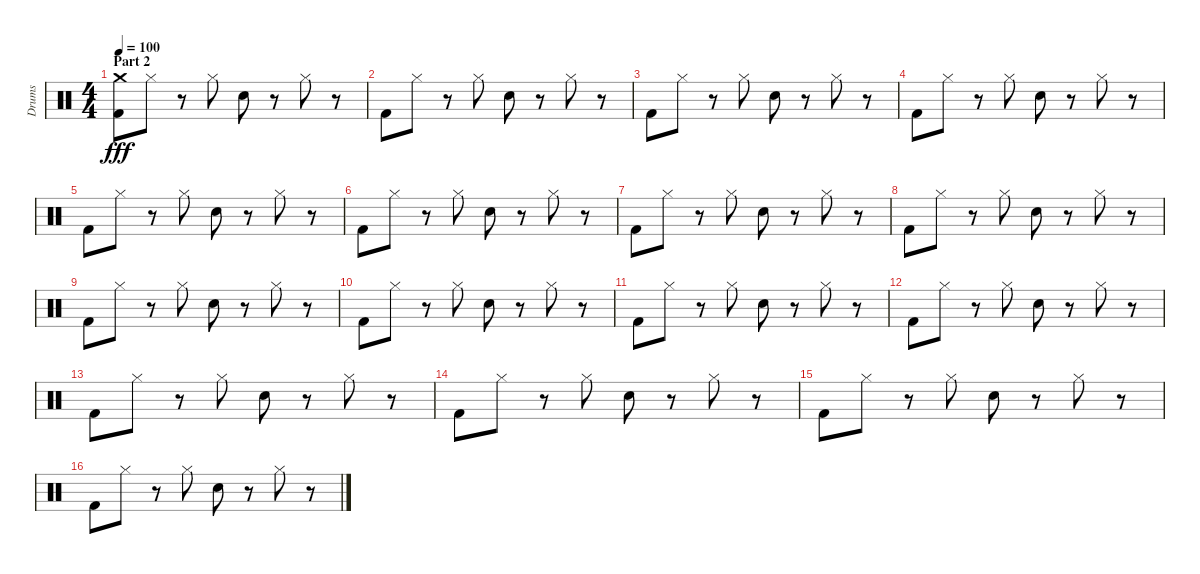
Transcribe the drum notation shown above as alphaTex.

\track ("Drums" "Drums") {instrument percussion}
\staff {score}
\articulation defaults
\ts (4 4)
\section ("" "Part 2")
\tempo 100
\clef neutral
\ks c
("Crash medium (hit)" "Kick (hit) 2").8{dy fff} "Hi-Hat (closed)".8 r.8 "Hi-Hat (closed)".8 "Electric Snare (hit)".8 r.8 "Hi-Hat (closed)".8 r.8 |
"Kick (hit) 2".8 "Hi-Hat (closed)".8 r.8 "Hi-Hat (closed)".8 "Electric Snare (hit)".8 r.8 "Hi-Hat (closed)".8 r.8 |
"Kick (hit) 2".8 "Hi-Hat (closed)".8 r.8 "Hi-Hat (closed)".8 "Electric Snare (hit)".8 r.8 "Hi-Hat (closed)".8 r.8 |
"Kick (hit) 2".8 "Hi-Hat (closed)".8 r.8 "Hi-Hat (closed)".8 "Electric Snare (hit)".8 r.8 "Hi-Hat (closed)".8 r.8 |
"Kick (hit) 2".8 "Hi-Hat (closed)".8 r.8 "Hi-Hat (closed)".8 "Electric Snare (hit)".8 r.8 "Hi-Hat (closed)".8 r.8 |
"Kick (hit) 2".8 "Hi-Hat (closed)".8 r.8 "Hi-Hat (closed)".8 "Electric Snare (hit)".8 r.8 "Hi-Hat (closed)".8 r.8 |
"Kick (hit) 2".8 "Hi-Hat (closed)".8 r.8 "Hi-Hat (closed)".8 "Electric Snare (hit)".8 r.8 "Hi-Hat (closed)".8 r.8 |
"Kick (hit) 2".8 "Hi-Hat (closed)".8 r.8 "Hi-Hat (closed)".8 "Electric Snare (hit)".8 r.8 "Hi-Hat (closed)".8 r.8 |
"Kick (hit) 2".8 "Hi-Hat (closed)".8 r.8 "Hi-Hat (closed)".8 "Electric Snare (hit)".8 r.8 "Hi-Hat (closed)".8 r.8 |
"Kick (hit) 2".8 "Hi-Hat (closed)".8 r.8 "Hi-Hat (closed)".8 "Electric Snare (hit)".8 r.8 "Hi-Hat (closed)".8 r.8 |
"Kick (hit) 2".8 "Hi-Hat (closed)".8 r.8 "Hi-Hat (closed)".8 "Electric Snare (hit)".8 r.8 "Hi-Hat (closed)".8 r.8 |
"Kick (hit) 2".8 "Hi-Hat (closed)".8 r.8 "Hi-Hat (closed)".8 "Electric Snare (hit)".8 r.8 "Hi-Hat (closed)".8 r.8 |
"Kick (hit) 2".8 "Hi-Hat (closed)".8 r.8 "Hi-Hat (closed)".8 "Electric Snare (hit)".8 r.8 "Hi-Hat (closed)".8 r.8 |
"Kick (hit) 2".8 "Hi-Hat (closed)".8 r.8 "Hi-Hat (closed)".8 "Electric Snare (hit)".8 r.8 "Hi-Hat (closed)".8 r.8 |
"Kick (hit) 2".8 "Hi-Hat (closed)".8 r.8 "Hi-Hat (closed)".8 "Electric Snare (hit)".8 r.8 "Hi-Hat (closed)".8 r.8 |
"Kick (hit) 2".8 "Hi-Hat (closed)".8 r.8 "Hi-Hat (closed)".8 "Electric Snare (hit)".8 r.8 "Hi-Hat (closed)".8 r.8
